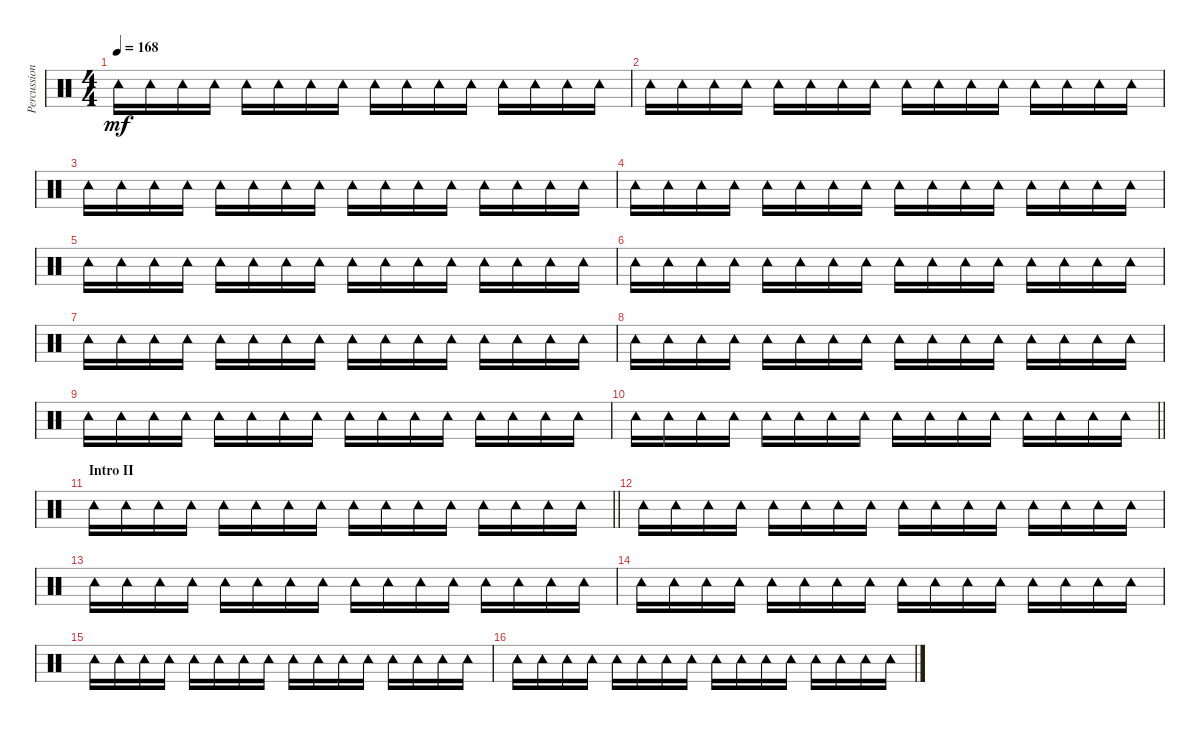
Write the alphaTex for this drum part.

\track ("Percussion" "Percussion") {instrument percussion}
\staff {score}
\articulation defaults
\ts (4 4)
\tempo 168
\clef neutral
\ks c "Tambourine (hit)".16{dy mf} "Tambourine (hit)".16 "Tambourine (hit)".16 "Tambourine (hit)".16 "Tambourine (hit)".16 "Tambourine (hit)".16 "Tambourine (hit)".16 "Tambourine (hit)".16 "Tambourine (hit)".16 "Tambourine (hit)".16 "Tambourine (hit)".16 "Tambourine (hit)".16 "Tambourine (hit)".16 "Tambourine (hit)".16 "Tambourine (hit)".16 "Tambourine (hit)".16
|
"Tambourine (hit)".16 "Tambourine (hit)".16 "Tambourine (hit)".16 "Tambourine (hit)".16 "Tambourine (hit)".16 "Tambourine (hit)".16 "Tambourine (hit)".16 "Tambourine (hit)".16 "Tambourine (hit)".16 "Tambourine (hit)".16 "Tambourine (hit)".16 "Tambourine (hit)".16 "Tambourine (hit)".16 "Tambourine (hit)".16 "Tambourine (hit)".16 "Tambourine (hit)".16 |
"Tambourine (hit)".16 "Tambourine (hit)".16 "Tambourine (hit)".16 "Tambourine (hit)".16 "Tambourine (hit)".16 "Tambourine (hit)".16 "Tambourine (hit)".16 "Tambourine (hit)".16 "Tambourine (hit)".16 "Tambourine (hit)".16 "Tambourine (hit)".16 "Tambourine (hit)".16 "Tambourine (hit)".16 "Tambourine (hit)".16 "Tambourine (hit)".16 "Tambourine (hit)".16 |
"Tambourine (hit)".16 "Tambourine (hit)".16 "Tambourine (hit)".16 "Tambourine (hit)".16 "Tambourine (hit)".16 "Tambourine (hit)".16 "Tambourine (hit)".16 "Tambourine (hit)".16 "Tambourine (hit)".16 "Tambourine (hit)".16 "Tambourine (hit)".16 "Tambourine (hit)".16 "Tambourine (hit)".16 "Tambourine (hit)".16 "Tambourine (hit)".16 "Tambourine (hit)".16 |
"Tambourine (hit)".16 "Tambourine (hit)".16 "Tambourine (hit)".16 "Tambourine (hit)".16 "Tambourine (hit)".16 "Tambourine (hit)".16 "Tambourine (hit)".16 "Tambourine (hit)".16 "Tambourine (hit)".16 "Tambourine (hit)".16 "Tambourine (hit)".16 "Tambourine (hit)".16 "Tambourine (hit)".16 "Tambourine (hit)".16 "Tambourine (hit)".16 "Tambourine (hit)".16 |
"Tambourine (hit)".16 "Tambourine (hit)".16 "Tambourine (hit)".16 "Tambourine (hit)".16 "Tambourine (hit)".16 "Tambourine (hit)".16 "Tambourine (hit)".16 "Tambourine (hit)".16 "Tambourine (hit)".16 "Tambourine (hit)".16 "Tambourine (hit)".16 "Tambourine (hit)".16 "Tambourine (hit)".16 "Tambourine (hit)".16 "Tambourine (hit)".16 "Tambourine (hit)".16 |
"Tambourine (hit)".16 "Tambourine (hit)".16 "Tambourine (hit)".16 "Tambourine (hit)".16 "Tambourine (hit)".16 "Tambourine (hit)".16 "Tambourine (hit)".16 "Tambourine (hit)".16 "Tambourine (hit)".16 "Tambourine (hit)".16 "Tambourine (hit)".16 "Tambourine (hit)".16 "Tambourine (hit)".16 "Tambourine (hit)".16 "Tambourine (hit)".16 "Tambourine (hit)".16 |
"Tambourine (hit)".16 "Tambourine (hit)".16 "Tambourine (hit)".16 "Tambourine (hit)".16 "Tambourine (hit)".16 "Tambourine (hit)".16 "Tambourine (hit)".16 "Tambourine (hit)".16 "Tambourine (hit)".16 "Tambourine (hit)".16 "Tambourine (hit)".16 "Tambourine (hit)".16 "Tambourine (hit)".16 "Tambourine (hit)".16 "Tambourine (hit)".16 "Tambourine (hit)".16 |
"Tambourine (hit)".16 "Tambourine (hit)".16 "Tambourine (hit)".16 "Tambourine (hit)".16 "Tambourine (hit)".16 "Tambourine (hit)".16 "Tambourine (hit)".16 "Tambourine (hit)".16 "Tambourine (hit)".16 "Tambourine (hit)".16 "Tambourine (hit)".16 "Tambourine (hit)".16 "Tambourine (hit)".16 "Tambourine (hit)".16 "Tambourine (hit)".16 "Tambourine (hit)".16 |
\barLineRight lightlight "Tambourine (hit)".16 "Tambourine (hit)".16 "Tambourine (hit)".16 "Tambourine (hit)".16 "Tambourine (hit)".16 "Tambourine (hit)".16 "Tambourine (hit)".16 "Tambourine (hit)".16 "Tambourine (hit)".16 "Tambourine (hit)".16 "Tambourine (hit)".16 "Tambourine (hit)".16 "Tambourine (hit)".16 "Tambourine (hit)".16 "Tambourine (hit)".16 "Tambourine (hit)".16
|
\section ("" "Intro II")
\barLineRight lightlight "Tambourine (hit)".16 "Tambourine (hit)".16 "Tambourine (hit)".16 "Tambourine (hit)".16 "Tambourine (hit)".16 "Tambourine (hit)".16 "Tambourine (hit)".16 "Tambourine (hit)".16 "Tambourine (hit)".16 "Tambourine (hit)".16 "Tambourine (hit)".16 "Tambourine (hit)".16 "Tambourine (hit)".16 "Tambourine (hit)".16 "Tambourine (hit)".16 "Tambourine (hit)".16
|
"Tambourine (hit)".16 "Tambourine (hit)".16 "Tambourine (hit)".16 "Tambourine (hit)".16 "Tambourine (hit)".16 "Tambourine (hit)".16 "Tambourine (hit)".16 "Tambourine (hit)".16 "Tambourine (hit)".16 "Tambourine (hit)".16 "Tambourine (hit)".16 "Tambourine (hit)".16 "Tambourine (hit)".16 "Tambourine (hit)".16 "Tambourine (hit)".16 "Tambourine (hit)".16 |
"Tambourine (hit)".16 "Tambourine (hit)".16 "Tambourine (hit)".16 "Tambourine (hit)".16 "Tambourine (hit)".16 "Tambourine (hit)".16 "Tambourine (hit)".16 "Tambourine (hit)".16 "Tambourine (hit)".16 "Tambourine (hit)".16 "Tambourine (hit)".16 "Tambourine (hit)".16 "Tambourine (hit)".16 "Tambourine (hit)".16 "Tambourine (hit)".16 "Tambourine (hit)".16 |
"Tambourine (hit)".16 "Tambourine (hit)".16 "Tambourine (hit)".16 "Tambourine (hit)".16 "Tambourine (hit)".16 "Tambourine (hit)".16 "Tambourine (hit)".16 "Tambourine (hit)".16 "Tambourine (hit)".16 "Tambourine (hit)".16 "Tambourine (hit)".16 "Tambourine (hit)".16 "Tambourine (hit)".16 "Tambourine (hit)".16 "Tambourine (hit)".16 "Tambourine (hit)".16 |
"Tambourine (hit)".16 "Tambourine (hit)".16 "Tambourine (hit)".16 "Tambourine (hit)".16 "Tambourine (hit)".16 "Tambourine (hit)".16 "Tambourine (hit)".16 "Tambourine (hit)".16 "Tambourine (hit)".16 "Tambourine (hit)".16 "Tambourine (hit)".16 "Tambourine (hit)".16 "Tambourine (hit)".16 "Tambourine (hit)".16 "Tambourine (hit)".16 "Tambourine (hit)".16 |
"Tambourine (hit)".16 "Tambourine (hit)".16 "Tambourine (hit)".16 "Tambourine (hit)".16 "Tambourine (hit)".16 "Tambourine (hit)".16 "Tambourine (hit)".16 "Tambourine (hit)".16 "Tambourine (hit)".16 "Tambourine (hit)".16 "Tambourine (hit)".16 "Tambourine (hit)".16 "Tambourine (hit)".16 "Tambourine (hit)".16 "Tambourine (hit)".16 "Tambourine (hit)".16
